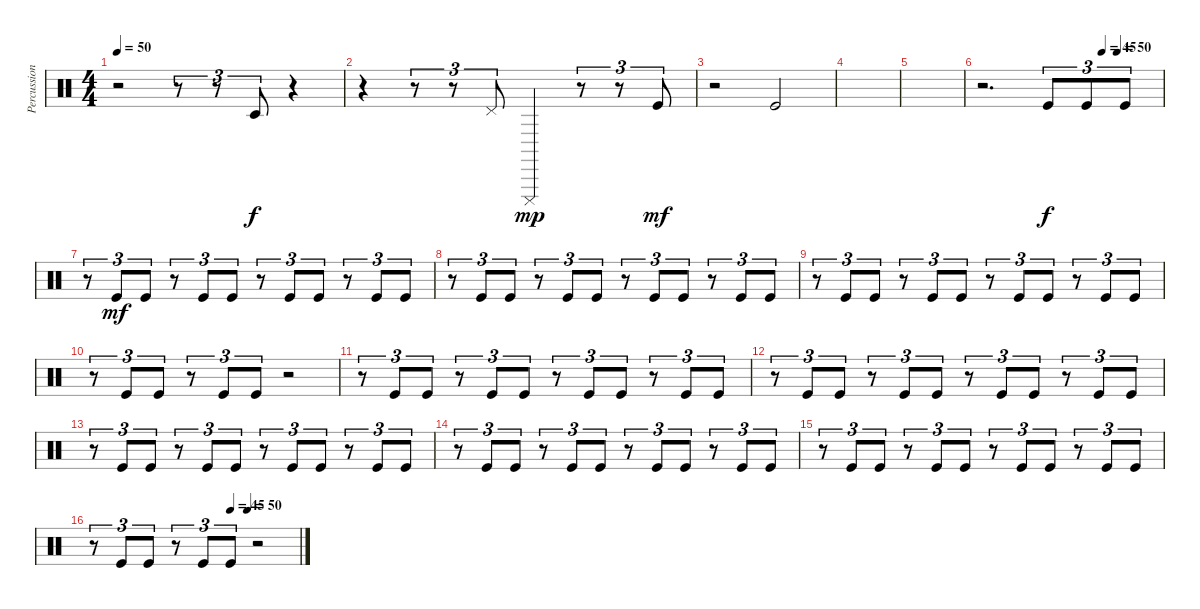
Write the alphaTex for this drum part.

\track ("Percussions" "Percussion") {instrument percussion}
\staff {score}
\articulation defaults
\ts (4 4)
\tempo 50
\clef neutral
\ks c
r.2{dy f} r.8{tu (3 2)} r.8{tu (3 2)} "Timbale low (hit)".8{tu (3 2)} r.4 |
r.4 r.8{tu (3 2)} r.8{tu (3 2)} "Pedal Hi-Hat (hit)".8{tu (3 2)} "Cuica (mute)".4{dy mp} r.8{tu (3 2)} r.8{tu (3 2)} "Kick (hit)".8{tu (3 2) dy mf} |
r.2 "Kick (hit)".2 |
|
|
\tempo (45 0.6666666666666666)
\tempo (50 0.75)
r.2{d} "Kick (hit)".8{tu (3 2) dy f} "Kick (hit)".8{tu (3 2)} "Kick (hit)".8{tu (3 2)} |
r.8{tu (3 2)} "Kick (hit)".8{tu (3 2) dy mf} "Kick (hit)".8{tu (3 2)} r.8{tu (3 2)} "Kick (hit)".8{tu (3 2)} "Kick (hit)".8{tu (3 2)} r.8{tu (3 2)} "Kick (hit)".8{tu (3 2)} "Kick (hit)".8{tu (3 2)} r.8{tu (3 2)} "Kick (hit)".8{tu (3 2)} "Kick (hit)".8{tu (3 2)} |
r.8{tu (3 2)} "Kick (hit)".8{tu (3 2)} "Kick (hit)".8{tu (3 2)} r.8{tu (3 2)} "Kick (hit)".8{tu (3 2)} "Kick (hit)".8{tu (3 2)} r.8{tu (3 2)} "Kick (hit)".8{tu (3 2)} "Kick (hit)".8{tu (3 2)} r.8{tu (3 2)} "Kick (hit)".8{tu (3 2)} "Kick (hit)".8{tu (3 2)} |
r.8{tu (3 2)} "Kick (hit)".8{tu (3 2)} "Kick (hit)".8{tu (3 2)} r.8{tu (3 2)} "Kick (hit)".8{tu (3 2)} "Kick (hit)".8{tu (3 2)} r.8{tu (3 2)} "Kick (hit)".8{tu (3 2)} "Kick (hit)".8{tu (3 2)} r.8{tu (3 2)} "Kick (hit)".8{tu (3 2)} "Kick (hit)".8{tu (3 2)} |
r.8{tu (3 2)} "Kick (hit)".8{tu (3 2)} "Kick (hit)".8{tu (3 2)} r.8{tu (3 2)} "Kick (hit)".8{tu (3 2)} "Kick (hit)".8{tu (3 2)} r.2 |
r.8{tu (3 2)} "Kick (hit)".8{tu (3 2)} "Kick (hit)".8{tu (3 2)} r.8{tu (3 2)} "Kick (hit)".8{tu (3 2)} "Kick (hit)".8{tu (3 2)} r.8{tu (3 2)} "Kick (hit)".8{tu (3 2)} "Kick (hit)".8{tu (3 2)} r.8{tu (3 2)} "Kick (hit)".8{tu (3 2)} "Kick (hit)".8{tu (3 2)} |
r.8{tu (3 2)} "Kick (hit)".8{tu (3 2)} "Kick (hit)".8{tu (3 2)} r.8{tu (3 2)} "Kick (hit)".8{tu (3 2)} "Kick (hit)".8{tu (3 2)} r.8{tu (3 2)} "Kick (hit)".8{tu (3 2)} "Kick (hit)".8{tu (3 2)} r.8{tu (3 2)} "Kick (hit)".8{tu (3 2)} "Kick (hit)".8{tu (3 2)} |
r.8{tu (3 2)} "Kick (hit)".8{tu (3 2)} "Kick (hit)".8{tu (3 2)} r.8{tu (3 2)} "Kick (hit)".8{tu (3 2)} "Kick (hit)".8{tu (3 2)} r.8{tu (3 2)} "Kick (hit)".8{tu (3 2)} "Kick (hit)".8{tu (3 2)} r.8{tu (3 2)} "Kick (hit)".8{tu (3 2)} "Kick (hit)".8{tu (3 2)} |
r.8{tu (3 2)} "Kick (hit)".8{tu (3 2)} "Kick (hit)".8{tu (3 2)} r.8{tu (3 2)} "Kick (hit)".8{tu (3 2)} "Kick (hit)".8{tu (3 2)} r.8{tu (3 2)} "Kick (hit)".8{tu (3 2)} "Kick (hit)".8{tu (3 2)} r.8{tu (3 2)} "Kick (hit)".8{tu (3 2)} "Kick (hit)".8{tu (3 2)} |
r.8{tu (3 2)} "Kick (hit)".8{tu (3 2)} "Kick (hit)".8{tu (3 2)} r.8{tu (3 2)} "Kick (hit)".8{tu (3 2)} "Kick (hit)".8{tu (3 2)} r.8{tu (3 2)} "Kick (hit)".8{tu (3 2)} "Kick (hit)".8{tu (3 2)} r.8{tu (3 2)} "Kick (hit)".8{tu (3 2)} "Kick (hit)".8{tu (3 2)} |
\tempo (45 0.6666666666666666)
\tempo (50 0.75)
r.8{tu (3 2)} "Kick (hit)".8{tu (3 2)} "Kick (hit)".8{tu (3 2)} r.8{tu (3 2)} "Kick (hit)".8{tu (3 2)} "Kick (hit)".8{tu (3 2)} r.2
